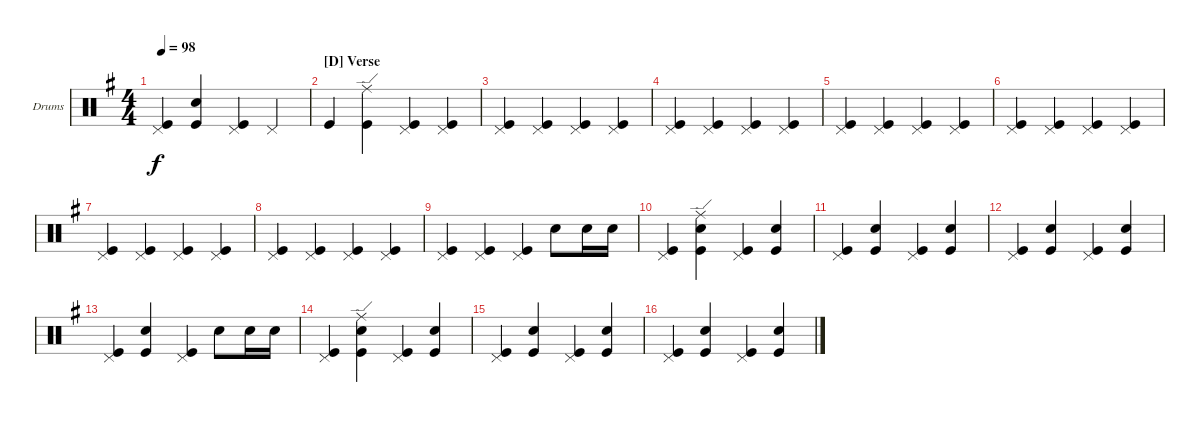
\defaultSystemsLayout 4
\bracketExtendMode groupsimilarinstruments
\firstSystemTrackNameOrientation horizontal
\otherSystemsTrackNameOrientation horizontal
\track ("Matt Helders" "Drums") {multiBarRest instrument percussion}
\staff {score}
\articulation defaults
\ts (4 4)
\tempo 98
\clef neutral
\ks g
("Kick (hit)" "Pedal Hi-Hat (hit)").4{dy f} ("Snare (hit) 2" "Kick (hit)").4 ("Kick (hit)" "Pedal Hi-Hat (hit)").4 "Pedal Hi-Hat (hit)".4 |
\section ("D" "Verse")
"Kick (hit)".4 ("Kick (hit)" "Ride (edge)").4 ("Kick (hit)" "Pedal Hi-Hat (hit)").4 ("Kick (hit)" "Pedal Hi-Hat (hit)").4 |
("Kick (hit)" "Pedal Hi-Hat (hit)").4 ("Kick (hit)" "Pedal Hi-Hat (hit)").4 ("Kick (hit)" "Pedal Hi-Hat (hit)").4 ("Kick (hit)" "Pedal Hi-Hat (hit)").4 |
("Kick (hit)" "Pedal Hi-Hat (hit)").4 ("Kick (hit)" "Pedal Hi-Hat (hit)").4 ("Kick (hit)" "Pedal Hi-Hat (hit)").4 ("Kick (hit)" "Pedal Hi-Hat (hit)").4 |
("Kick (hit)" "Pedal Hi-Hat (hit)").4 ("Kick (hit)" "Pedal Hi-Hat (hit)").4 ("Kick (hit)" "Pedal Hi-Hat (hit)").4 ("Kick (hit)" "Pedal Hi-Hat (hit)").4 |
("Kick (hit)" "Pedal Hi-Hat (hit)").4 ("Kick (hit)" "Pedal Hi-Hat (hit)").4 ("Kick (hit)" "Pedal Hi-Hat (hit)").4 ("Kick (hit)" "Pedal Hi-Hat (hit)").4 |
("Kick (hit)" "Pedal Hi-Hat (hit)").4 ("Kick (hit)" "Pedal Hi-Hat (hit)").4 ("Kick (hit)" "Pedal Hi-Hat (hit)").4 ("Kick (hit)" "Pedal Hi-Hat (hit)").4 |
("Kick (hit)" "Pedal Hi-Hat (hit)").4 ("Kick (hit)" "Pedal Hi-Hat (hit)").4 ("Kick (hit)" "Pedal Hi-Hat (hit)").4 ("Kick (hit)" "Pedal Hi-Hat (hit)").4 |
("Kick (hit)" "Pedal Hi-Hat (hit)").4 ("Kick (hit)" "Pedal Hi-Hat (hit)").4 ("Kick (hit)" "Pedal Hi-Hat (hit)").4 "Snare (hit) 2".8 "Snare (hit) 2".16 "Snare (hit) 2".16 |
("Kick (hit)" "Pedal Hi-Hat (hit)").4 ("Snare (hit) 2" "Kick (hit)" "Ride (edge)").4 ("Kick (hit)" "Pedal Hi-Hat (hit)").4 ("Snare (hit) 2" "Kick (hit)").4 |
("Kick (hit)" "Pedal Hi-Hat (hit)").4 ("Snare (hit) 2" "Kick (hit)").4 ("Kick (hit)" "Pedal Hi-Hat (hit)").4 ("Snare (hit) 2" "Kick (hit)").4 |
("Kick (hit)" "Pedal Hi-Hat (hit)").4 ("Snare (hit) 2" "Kick (hit)").4 ("Kick (hit)" "Pedal Hi-Hat (hit)").4 ("Snare (hit) 2" "Kick (hit)").4 |
("Kick (hit)" "Pedal Hi-Hat (hit)").4 ("Snare (hit) 2" "Kick (hit)").4 ("Kick (hit)" "Pedal Hi-Hat (hit)").4 "Snare (hit) 2".8 "Snare (hit) 2".16 "Snare (hit) 2".16 |
("Kick (hit)" "Pedal Hi-Hat (hit)").4 ("Snare (hit) 2" "Kick (hit)" "Ride (edge)").4 ("Kick (hit)" "Pedal Hi-Hat (hit)").4 ("Snare (hit) 2" "Kick (hit)").4 |
("Kick (hit)" "Pedal Hi-Hat (hit)").4 ("Snare (hit) 2" "Kick (hit)").4 ("Kick (hit)" "Pedal Hi-Hat (hit)").4 ("Snare (hit) 2" "Kick (hit)").4 |
("Kick (hit)" "Pedal Hi-Hat (hit)").4 ("Snare (hit) 2" "Kick (hit)").4 ("Kick (hit)" "Pedal Hi-Hat (hit)").4 ("Snare (hit) 2" "Kick (hit)").4
